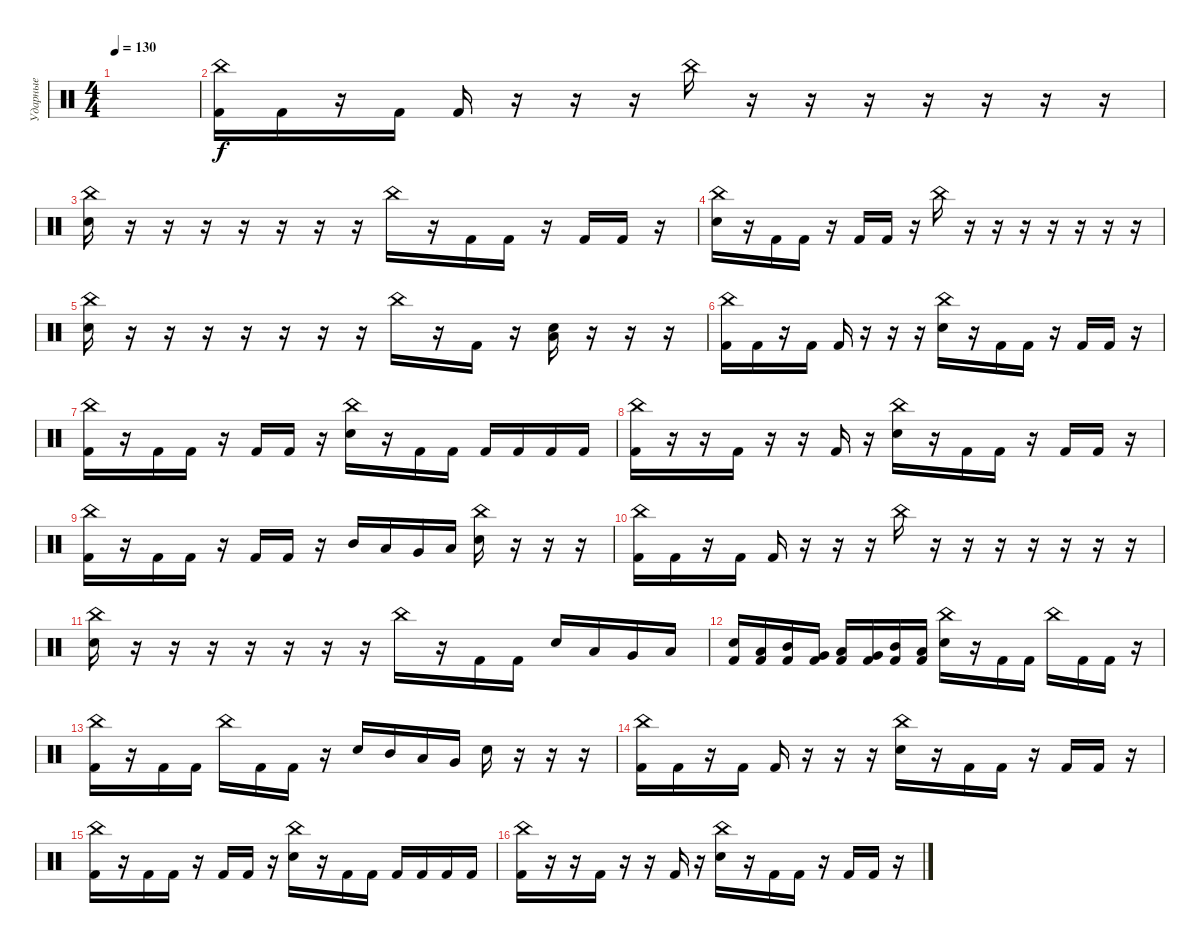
\track ("Ударные" "Ударные") {instrument percussion}
\staff {score}
\articulation defaults
\ts (4 4)
\tempo 130
\clef neutral
\ks c
|
("China (hit)" "Kick (hit) 2").16 "Kick (hit) 2".16 r.16 "Kick (hit) 2".16 "Kick (hit) 2".16 r.16 r.16 r.16 "China (hit)".16 r.16 r.16 r.16 r.16 r.16 r.16 r.16 |
("China (hit)" "Electric Snare (hit)").16 r.16 r.16 r.16 r.16 r.16 r.16 r.16 "China (hit)".16 r.16 "Kick (hit) 2".16 "Kick (hit) 2".16 r.16 "Kick (hit) 2".16 "Kick (hit) 2".16 r.16 |
("China (hit)" "Electric Snare (hit)").16 r.16 "Kick (hit) 2".16 "Kick (hit) 2".16 r.16 "Kick (hit) 2".16 "Kick (hit) 2".16 r.16 "China (hit)".16 r.16 r.16 r.16 r.16 r.16 r.16 r.16 |
("China (hit)" "Electric Snare (hit)").16 r.16 r.16 r.16 r.16 r.16 r.16 r.16 "China (hit)".16 r.16 "Kick (hit) 2".16 r.16 ("Low Floor Tom (hit)" "Electric Snare (hit)").16 r.16 r.16 r.16 |
("China (hit)" "Kick (hit) 2").16 "Kick (hit) 2".16 r.16 "Kick (hit) 2".16 "Kick (hit) 2".16 r.16 r.16 r.16 ("China (hit)" "Electric Snare (hit)").16 r.16 "Kick (hit) 2".16 "Kick (hit) 2".16 r.16 "Kick (hit) 2".16 "Kick (hit) 2".16 r.16 |
("China (hit)" "Kick (hit) 2").16 r.16 "Kick (hit) 2".16 "Kick (hit) 2".16 r.16 "Kick (hit) 2".16 "Kick (hit) 2".16 r.16 ("China (hit)" "Electric Snare (hit)").16 r.16 "Kick (hit) 2".16 "Kick (hit) 2".16 "Kick (hit) 2".16 "Kick (hit) 2".16 "Kick (hit) 2".16 "Kick (hit) 2".16 |
("China (hit)" "Kick (hit) 2").16 r.16 r.16 "Kick (hit) 2".16 r.16 r.16 "Kick (hit) 2".16 r.16 ("China (hit)" "Electric Snare (hit)").16 r.16 "Kick (hit) 2".16 "Kick (hit) 2".16 r.16 "Kick (hit) 2".16 "Kick (hit) 2".16 r.16 |
("China (hit)" "Kick (hit) 2").16 r.16 "Kick (hit) 2".16 "Kick (hit) 2".16 r.16 "Kick (hit) 2".16 "Kick (hit) 2".16 r.16 "Mid Tom (hit)".16 "Low Tom (hit)".16 "Very Low Tom (hit)".16 "Low Floor Tom (hit)".16 ("China (hit)" "Electric Snare (hit)").16 r.16 r.16 r.16 |
("China (hit)" "Kick (hit) 2").16 "Kick (hit) 2".16 r.16 "Kick (hit) 2".16 "Kick (hit) 2".16 r.16 r.16 r.16 "China (hit)".16 r.16 r.16 r.16 r.16 r.16 r.16 r.16 |
("China (hit)" "Electric Snare (hit)").16 r.16 r.16 r.16 r.16 r.16 r.16 r.16 "China (hit)".16 r.16 "Kick (hit) 2".16 "Kick (hit) 2".16 "Electric Snare (hit)".16 "Low Tom (hit)".16 "Very Low Tom (hit)".16 "Low Floor Tom (hit)".16 |
("Electric Snare (hit)" "Kick (hit) 2").16 ("Low Tom (hit)" "Kick (hit) 2").16 ("Mid Tom (hit)" "Kick (hit) 2").16 ("Very Low Tom (hit)" "Kick (hit) 2").16 ("Low Tom (hit)" "Kick (hit) 2").16 ("Very Low Tom (hit)" "Kick (hit) 2").16 ("Mid Tom (hit)" "Kick (hit) 2").16 ("Low Floor Tom (hit)" "Kick (hit) 2").16 ("China (hit)" "Electric Snare (hit)").16 r.16 "Kick (hit) 2".16 "Kick (hit) 2".16 "China (hit)".16 "Kick (hit) 2".16 "Kick (hit) 2".16 r.16 |
("China (hit)" "Kick (hit) 2").16 r.16 "Kick (hit) 2".16 "Kick (hit) 2".16 "China (hit)".16 "Kick (hit) 2".16 "Kick (hit) 2".16 r.16 "Electric Snare (hit)".16 "Mid Tom (hit)".16 "Low Tom (hit)".16 "Very Low Tom (hit)".16 "Electric Snare (hit)".16 r.16 r.16 r.16 |
("China (hit)" "Kick (hit) 2").16 "Kick (hit) 2".16 r.16 "Kick (hit) 2".16 "Kick (hit) 2".16 r.16 r.16 r.16 ("China (hit)" "Electric Snare (hit)").16 r.16 "Kick (hit) 2".16 "Kick (hit) 2".16 r.16 "Kick (hit) 2".16 "Kick (hit) 2".16 r.16 |
("China (hit)" "Kick (hit) 2").16 r.16 "Kick (hit) 2".16 "Kick (hit) 2".16 r.16 "Kick (hit) 2".16 "Kick (hit) 2".16 r.16 ("China (hit)" "Electric Snare (hit)").16 r.16 "Kick (hit) 2".16 "Kick (hit) 2".16 "Kick (hit) 2".16 "Kick (hit) 2".16 "Kick (hit) 2".16 "Kick (hit) 2".16 |
("China (hit)" "Kick (hit) 2").16 r.16 r.16 "Kick (hit) 2".16 r.16 r.16 "Kick (hit) 2".16 r.16 ("China (hit)" "Electric Snare (hit)").16 r.16 "Kick (hit) 2".16 "Kick (hit) 2".16 r.16 "Kick (hit) 2".16 "Kick (hit) 2".16 r.16
